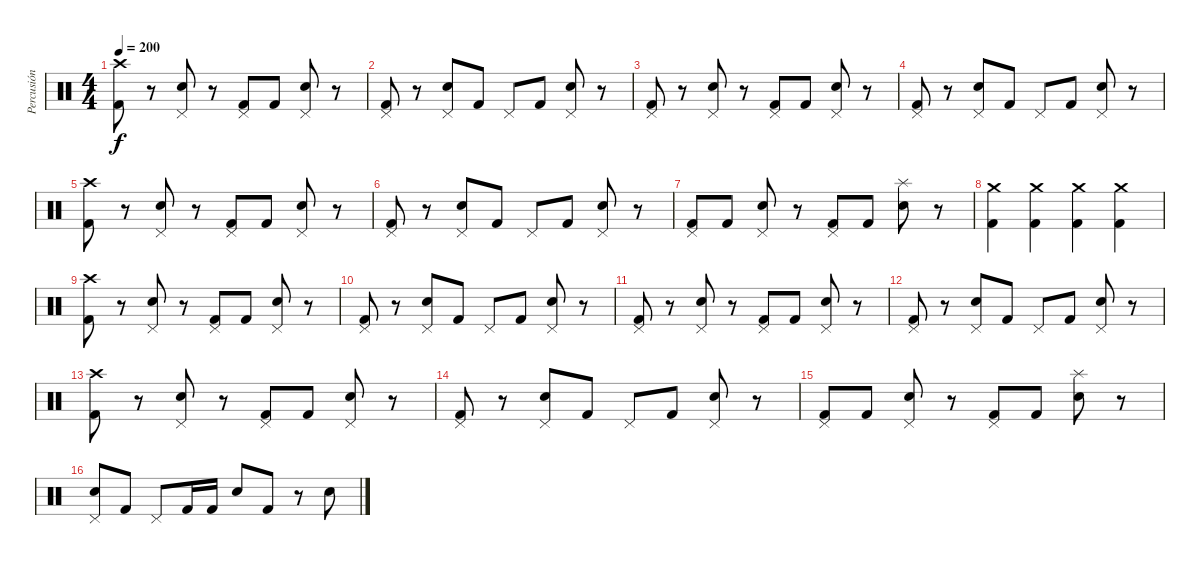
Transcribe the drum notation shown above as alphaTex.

\track ("Percusión" "Percusión") {instrument percussion}
\staff {score}
\articulation defaults
\ts (4 4)
\tempo 200
\clef neutral
\ks c
("Kick (hit) 2" "Crash high (hit)").8{dy f} r.8 ("Snare (hit) 2" "Pedal Hi-Hat (hit)").8 r.8 ("Kick (hit) 2" "Pedal Hi-Hat (hit)").8 "Kick (hit) 2".8 ("Snare (hit) 2" "Pedal Hi-Hat (hit)").8 r.8 |
("Kick (hit) 2" "Pedal Hi-Hat (hit)").8 r.8 ("Snare (hit) 2" "Pedal Hi-Hat (hit)").8 "Kick (hit) 2".8 "Pedal Hi-Hat (hit)".8 "Kick (hit) 2".8 ("Snare (hit) 2" "Pedal Hi-Hat (hit)").8 r.8 |
("Kick (hit) 2" "Pedal Hi-Hat (hit)").8 r.8 ("Snare (hit) 2" "Pedal Hi-Hat (hit)").8 r.8 ("Kick (hit) 2" "Pedal Hi-Hat (hit)").8 "Kick (hit) 2".8 ("Snare (hit) 2" "Pedal Hi-Hat (hit)").8 r.8 |
("Kick (hit) 2" "Pedal Hi-Hat (hit)").8 r.8 ("Snare (hit) 2" "Pedal Hi-Hat (hit)").8 "Kick (hit) 2".8 "Pedal Hi-Hat (hit)".8 "Kick (hit) 2".8 ("Snare (hit) 2" "Pedal Hi-Hat (hit)").8 r.8 |
("Kick (hit) 2" "Crash high (hit)").8 r.8 ("Snare (hit) 2" "Pedal Hi-Hat (hit)").8 r.8 ("Kick (hit) 2" "Pedal Hi-Hat (hit)").8 "Kick (hit) 2".8 ("Snare (hit) 2" "Pedal Hi-Hat (hit)").8 r.8 |
("Kick (hit) 2" "Pedal Hi-Hat (hit)").8 r.8 ("Snare (hit) 2" "Pedal Hi-Hat (hit)").8 "Kick (hit) 2".8 "Pedal Hi-Hat (hit)".8 "Kick (hit) 2".8 ("Snare (hit) 2" "Pedal Hi-Hat (hit)").8 r.8 |
("Kick (hit) 2" "Pedal Hi-Hat (hit)").8 "Kick (hit) 2".8 ("Snare (hit) 2" "Pedal Hi-Hat (hit)").8 r.8 ("Kick (hit) 2" "Pedal Hi-Hat (hit)").8 "Kick (hit) 2".8 ("Snare (hit) 2" "Splash (hit)").8 r.8 |
("Kick (hit) 2" "Crash medium (hit)").4 ("Kick (hit) 2" "Crash medium (hit)").4 ("Kick (hit) 2" "Crash medium (hit)").4 ("Kick (hit) 2" "Crash medium (hit)").4 |
("Kick (hit) 2" "Crash high (hit)").8 r.8 ("Snare (hit) 2" "Pedal Hi-Hat (hit)").8 r.8 ("Kick (hit) 2" "Pedal Hi-Hat (hit)").8 "Kick (hit) 2".8 ("Snare (hit) 2" "Pedal Hi-Hat (hit)").8 r.8 |
("Kick (hit) 2" "Pedal Hi-Hat (hit)").8 r.8 ("Snare (hit) 2" "Pedal Hi-Hat (hit)").8 "Kick (hit) 2".8 "Pedal Hi-Hat (hit)".8 "Kick (hit) 2".8 ("Snare (hit) 2" "Pedal Hi-Hat (hit)").8 r.8 |
("Kick (hit) 2" "Pedal Hi-Hat (hit)").8 r.8 ("Snare (hit) 2" "Pedal Hi-Hat (hit)").8 r.8 ("Kick (hit) 2" "Pedal Hi-Hat (hit)").8 "Kick (hit) 2".8 ("Snare (hit) 2" "Pedal Hi-Hat (hit)").8 r.8 |
("Kick (hit) 2" "Pedal Hi-Hat (hit)").8 r.8 ("Snare (hit) 2" "Pedal Hi-Hat (hit)").8 "Kick (hit) 2".8 "Pedal Hi-Hat (hit)".8 "Kick (hit) 2".8 ("Snare (hit) 2" "Pedal Hi-Hat (hit)").8 r.8 |
("Kick (hit) 2" "Crash high (hit)").8 r.8 ("Snare (hit) 2" "Pedal Hi-Hat (hit)").8 r.8 ("Kick (hit) 2" "Pedal Hi-Hat (hit)").8 "Kick (hit) 2".8 ("Snare (hit) 2" "Pedal Hi-Hat (hit)").8 r.8 |
("Kick (hit) 2" "Pedal Hi-Hat (hit)").8 r.8 ("Snare (hit) 2" "Pedal Hi-Hat (hit)").8 "Kick (hit) 2".8 "Pedal Hi-Hat (hit)".8 "Kick (hit) 2".8 ("Snare (hit) 2" "Pedal Hi-Hat (hit)").8 r.8 |
("Kick (hit) 2" "Pedal Hi-Hat (hit)").8 "Kick (hit) 2".8 ("Snare (hit) 2" "Pedal Hi-Hat (hit)").8 r.8 ("Kick (hit) 2" "Pedal Hi-Hat (hit)").8 "Kick (hit) 2".8 ("Snare (hit) 2" "Splash (hit)").8 r.8 |
("Snare (hit) 2" "Pedal Hi-Hat (hit)").8 "Kick (hit) 2".8 "Pedal Hi-Hat (hit)".8 "Kick (hit) 2".16 "Kick (hit) 2".16 "Snare (hit) 2".8 "Kick (hit) 2".8 r.8 "Snare (hit) 2".8
